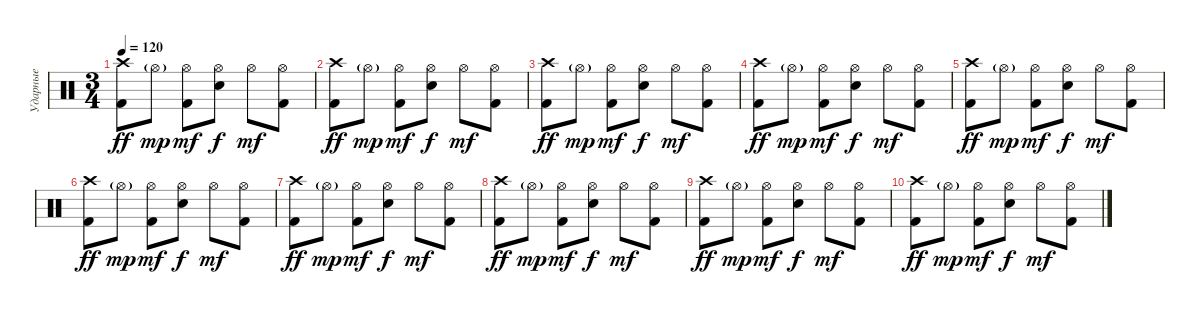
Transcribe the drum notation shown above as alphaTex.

\track ("Ударные" "Ударные") {instrument percussion}
\staff {score}
\articulation defaults
\ts (3 4)
\tempo 120
\clef neutral
\ks c
("Crash high (hit)" "Kick (hit) 2").8{dy ff} "Hi-Hat (open)"{g}.8{dy mp} ("Hi-Hat (open)" "Kick (hit) 2").8{dy mf} ("Hi-Hat (open)" "Electric Snare (hit)").8{dy f} "Hi-Hat (open)".8{dy mf} ("Hi-Hat (open)" "Kick (hit) 2").8 |
("Crash high (hit)" "Kick (hit) 2").8{dy ff} "Hi-Hat (open)"{g}.8{dy mp} ("Hi-Hat (open)" "Kick (hit) 2").8{dy mf} ("Hi-Hat (open)" "Electric Snare (hit)").8{dy f} "Hi-Hat (open)".8{dy mf} ("Hi-Hat (open)" "Kick (hit) 2").8 |
("Crash high (hit)" "Kick (hit) 2").8{dy ff} "Hi-Hat (open)"{g}.8{dy mp} ("Hi-Hat (open)" "Kick (hit) 2").8{dy mf} ("Hi-Hat (open)" "Electric Snare (hit)").8{dy f} "Hi-Hat (open)".8{dy mf} ("Hi-Hat (open)" "Kick (hit) 2").8 |
("Crash high (hit)" "Kick (hit) 2").8{dy ff} "Hi-Hat (open)"{g}.8{dy mp} ("Hi-Hat (open)" "Kick (hit) 2").8{dy mf} ("Hi-Hat (open)" "Electric Snare (hit)").8{dy f} "Hi-Hat (open)".8{dy mf} ("Hi-Hat (open)" "Kick (hit) 2").8 |
("Crash high (hit)" "Kick (hit) 2").8{dy ff} "Hi-Hat (open)"{g}.8{dy mp} ("Hi-Hat (open)" "Kick (hit) 2").8{dy mf} ("Hi-Hat (open)" "Electric Snare (hit)").8{dy f} "Hi-Hat (open)".8{dy mf} ("Hi-Hat (open)" "Kick (hit) 2").8 |
("Crash high (hit)" "Kick (hit) 2").8{dy ff} "Hi-Hat (open)"{g}.8{dy mp} ("Hi-Hat (open)" "Kick (hit) 2").8{dy mf} ("Hi-Hat (open)" "Electric Snare (hit)").8{dy f} "Hi-Hat (open)".8{dy mf} ("Hi-Hat (open)" "Kick (hit) 2").8 |
("Crash high (hit)" "Kick (hit) 2").8{dy ff} "Hi-Hat (open)"{g}.8{dy mp} ("Hi-Hat (open)" "Kick (hit) 2").8{dy mf} ("Hi-Hat (open)" "Electric Snare (hit)").8{dy f} "Hi-Hat (open)".8{dy mf} ("Hi-Hat (open)" "Kick (hit) 2").8 |
("Crash high (hit)" "Kick (hit) 2").8{dy ff} "Hi-Hat (open)"{g}.8{dy mp} ("Hi-Hat (open)" "Kick (hit) 2").8{dy mf} ("Hi-Hat (open)" "Electric Snare (hit)").8{dy f} "Hi-Hat (open)".8{dy mf} ("Hi-Hat (open)" "Kick (hit) 2").8 |
("Crash high (hit)" "Kick (hit) 2").8{dy ff} "Hi-Hat (open)"{g}.8{dy mp} ("Hi-Hat (open)" "Kick (hit) 2").8{dy mf} ("Hi-Hat (open)" "Electric Snare (hit)").8{dy f} "Hi-Hat (open)".8{dy mf} ("Hi-Hat (open)" "Kick (hit) 2").8 |
("Crash high (hit)" "Kick (hit) 2").8{dy ff} "Hi-Hat (open)"{g}.8{dy mp} ("Hi-Hat (open)" "Kick (hit) 2").8{dy mf} ("Hi-Hat (open)" "Electric Snare (hit)").8{dy f} "Hi-Hat (open)".8{dy mf} ("Hi-Hat (open)" "Kick (hit) 2").8
